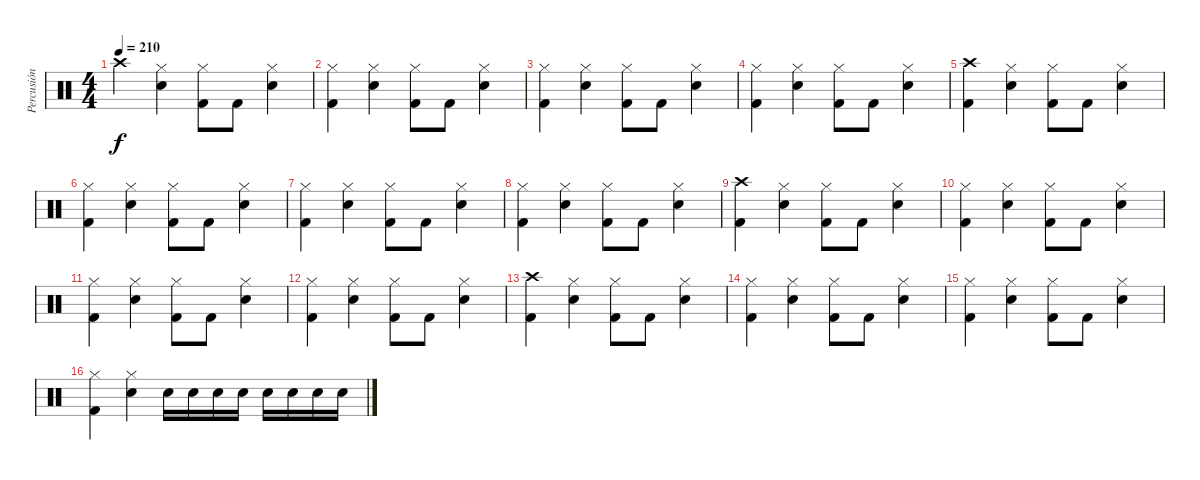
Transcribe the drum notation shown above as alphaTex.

\track ("Percusión" "Percusión") {instrument percussion}
\staff {score}
\articulation defaults
\ts (4 4)
\tempo 210
\clef neutral
\ks c "Crash high (hit)".4{dy f}
("Hi-Hat (closed)" "Electric Snare (hit)").4 ("Hi-Hat (closed)" "Kick (hit) 2").8 "Kick (hit) 2".8 ("Hi-Hat (closed)" "Electric Snare (hit)").4 |
("Hi-Hat (closed)" "Kick (hit) 2").4 ("Hi-Hat (closed)" "Electric Snare (hit)").4 ("Hi-Hat (closed)" "Kick (hit) 2").8 "Kick (hit) 2".8 ("Hi-Hat (closed)" "Electric Snare (hit)").4 |
("Hi-Hat (closed)" "Kick (hit) 2").4 ("Hi-Hat (closed)" "Electric Snare (hit)").4 ("Hi-Hat (closed)" "Kick (hit) 2").8 "Kick (hit) 2".8 ("Hi-Hat (closed)" "Electric Snare (hit)").4 |
("Hi-Hat (closed)" "Kick (hit) 2").4 ("Hi-Hat (closed)" "Electric Snare (hit)").4 ("Hi-Hat (closed)" "Kick (hit) 2").8 "Kick (hit) 2".8 ("Hi-Hat (closed)" "Electric Snare (hit)").4 |
("Crash high (hit)" "Kick (hit) 2").4 ("Hi-Hat (closed)" "Electric Snare (hit)").4 ("Hi-Hat (closed)" "Kick (hit) 2").8 "Kick (hit) 2".8 ("Hi-Hat (closed)" "Electric Snare (hit)").4 |
("Hi-Hat (closed)" "Kick (hit) 2").4 ("Hi-Hat (closed)" "Electric Snare (hit)").4 ("Hi-Hat (closed)" "Kick (hit) 2").8 "Kick (hit) 2".8 ("Hi-Hat (closed)" "Electric Snare (hit)").4 |
("Hi-Hat (closed)" "Kick (hit) 2").4 ("Hi-Hat (closed)" "Electric Snare (hit)").4 ("Hi-Hat (closed)" "Kick (hit) 2").8 "Kick (hit) 2".8 ("Hi-Hat (closed)" "Electric Snare (hit)").4 |
("Hi-Hat (closed)" "Kick (hit) 2").4 ("Hi-Hat (closed)" "Electric Snare (hit)").4 ("Hi-Hat (closed)" "Kick (hit) 2").8 "Kick (hit) 2".8 ("Hi-Hat (closed)" "Electric Snare (hit)").4 |
("Crash high (hit)" "Kick (hit) 2").4 ("Hi-Hat (closed)" "Electric Snare (hit)").4 ("Hi-Hat (closed)" "Kick (hit) 2").8 "Kick (hit) 2".8 ("Hi-Hat (closed)" "Electric Snare (hit)").4 |
("Hi-Hat (closed)" "Kick (hit) 2").4 ("Hi-Hat (closed)" "Electric Snare (hit)").4 ("Hi-Hat (closed)" "Kick (hit) 2").8 "Kick (hit) 2".8 ("Hi-Hat (closed)" "Electric Snare (hit)").4 |
("Hi-Hat (closed)" "Kick (hit) 2").4 ("Hi-Hat (closed)" "Electric Snare (hit)").4 ("Hi-Hat (closed)" "Kick (hit) 2").8 "Kick (hit) 2".8 ("Hi-Hat (closed)" "Electric Snare (hit)").4 |
("Hi-Hat (closed)" "Kick (hit) 2").4 ("Hi-Hat (closed)" "Electric Snare (hit)").4 ("Hi-Hat (closed)" "Kick (hit) 2").8 "Kick (hit) 2".8 ("Hi-Hat (closed)" "Electric Snare (hit)").4 |
("Crash high (hit)" "Kick (hit) 2").4 ("Hi-Hat (closed)" "Electric Snare (hit)").4 ("Hi-Hat (closed)" "Kick (hit) 2").8 "Kick (hit) 2".8 ("Hi-Hat (closed)" "Electric Snare (hit)").4 |
("Hi-Hat (closed)" "Kick (hit) 2").4 ("Hi-Hat (closed)" "Electric Snare (hit)").4 ("Hi-Hat (closed)" "Kick (hit) 2").8 "Kick (hit) 2".8 ("Hi-Hat (closed)" "Electric Snare (hit)").4 |
("Hi-Hat (closed)" "Kick (hit) 2").4 ("Hi-Hat (closed)" "Electric Snare (hit)").4 ("Hi-Hat (closed)" "Kick (hit) 2").8 "Kick (hit) 2".8 ("Hi-Hat (closed)" "Electric Snare (hit)").4 |
("Hi-Hat (closed)" "Kick (hit) 2").4 ("Hi-Hat (closed)" "Electric Snare (hit)").4 "Electric Snare (hit)".16 "Electric Snare (hit)".16 "Electric Snare (hit)".16 "Electric Snare (hit)".16 "Electric Snare (hit)".16 "Electric Snare (hit)".16 "Electric Snare (hit)".16 "Electric Snare (hit)".16
